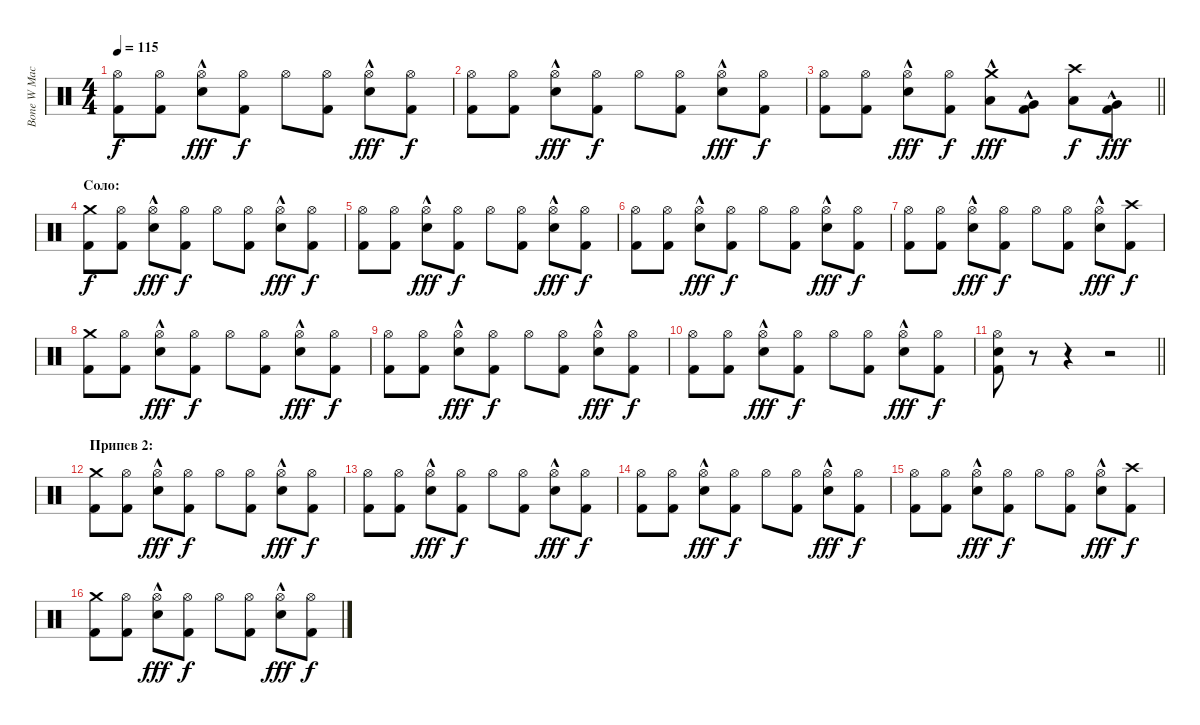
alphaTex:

\track ("Bone W Machine" "Bone W Mac") {instrument percussion}
\staff {score}
\articulation defaults
\ts (4 4)
\tempo 115
\clef neutral
\ks c
("Hi-Hat (open)" "Kick (hit) 2").8{dy f} ("Hi-Hat (open)" "Kick (hit) 2").8 ("Hi-Hat (open)" "Electric Snare (hit)"{hac}).8{dy fff} ("Hi-Hat (open)" "Kick (hit) 2").8{dy f} "Hi-Hat (open)".8 ("Hi-Hat (open)" "Kick (hit) 2").8 ("Hi-Hat (open)" "Electric Snare (hit)"{hac}).8{dy fff} ("Hi-Hat (open)" "Kick (hit) 2").8{dy f} |
("Hi-Hat (open)" "Kick (hit) 2").8 ("Hi-Hat (open)" "Kick (hit) 2").8 ("Hi-Hat (open)" "Electric Snare (hit)"{hac}).8{dy fff} ("Hi-Hat (open)" "Kick (hit) 2").8{dy f} "Hi-Hat (open)".8 ("Hi-Hat (open)" "Kick (hit) 2").8 ("Hi-Hat (open)" "Electric Snare (hit)"{hac}).8{dy fff} ("Hi-Hat (open)" "Kick (hit) 2").8{dy f} |
\barLineRight lightlight
("Hi-Hat (open)" "Kick (hit) 2").8 ("Hi-Hat (open)" "Kick (hit) 2").8 ("Hi-Hat (open)" "Electric Snare (hit)"{hac}).8{dy fff} ("Hi-Hat (open)" "Kick (hit) 2").8{dy f} ("Crash medium (hit)" "Low Floor Tom (hit)"{hac}).8{dy fff} ("Very Low Tom (hit)"{hac} "Kick (hit) 2").8 ("Crash high (hit)" "Low Tom (hit)").8{dy f} ("Very Low Tom (hit)"{hac} "Kick (hit) 2").8{dy fff} |
\section ("" "Соло:")
("Crash medium (hit)" "Kick (hit) 2").8{dy f} ("Hi-Hat (open)" "Kick (hit) 2").8 ("Hi-Hat (open)" "Electric Snare (hit)"{hac}).8{dy fff} ("Hi-Hat (open)" "Kick (hit) 2").8{dy f} "Hi-Hat (open)".8 ("Hi-Hat (open)" "Kick (hit) 2").8 ("Hi-Hat (open)" "Electric Snare (hit)"{hac}).8{dy fff} ("Hi-Hat (open)" "Kick (hit) 2").8{dy f} |
("Hi-Hat (open)" "Kick (hit) 2").8 ("Hi-Hat (open)" "Kick (hit) 2").8 ("Hi-Hat (open)" "Electric Snare (hit)"{hac}).8{dy fff} ("Hi-Hat (open)" "Kick (hit) 2").8{dy f} "Hi-Hat (open)".8 ("Hi-Hat (open)" "Kick (hit) 2").8 ("Hi-Hat (open)" "Electric Snare (hit)"{hac}).8{dy fff} ("Hi-Hat (open)" "Kick (hit) 2").8{dy f} |
("Hi-Hat (open)" "Kick (hit) 2").8 ("Hi-Hat (open)" "Kick (hit) 2").8 ("Hi-Hat (open)" "Electric Snare (hit)"{hac}).8{dy fff} ("Hi-Hat (open)" "Kick (hit) 2").8{dy f} "Hi-Hat (open)".8 ("Hi-Hat (open)" "Kick (hit) 2").8 ("Hi-Hat (open)" "Electric Snare (hit)"{hac}).8{dy fff} ("Hi-Hat (open)" "Kick (hit) 2").8{dy f} |
("Hi-Hat (open)" "Kick (hit) 2").8 ("Hi-Hat (open)" "Kick (hit) 2").8 ("Hi-Hat (open)" "Electric Snare (hit)"{hac}).8{dy fff} ("Hi-Hat (open)" "Kick (hit) 2").8{dy f} "Hi-Hat (open)".8 ("Hi-Hat (open)" "Kick (hit) 2").8 ("Hi-Hat (open)" "Electric Snare (hit)"{hac}).8{dy fff} ("Crash high (hit)" "Kick (hit) 2").8{dy f} |
("Crash medium (hit)" "Kick (hit) 2").8 ("Hi-Hat (open)" "Kick (hit) 2").8 ("Hi-Hat (open)" "Electric Snare (hit)"{hac}).8{dy fff} ("Hi-Hat (open)" "Kick (hit) 2").8{dy f} "Hi-Hat (open)".8 ("Hi-Hat (open)" "Kick (hit) 2").8 ("Hi-Hat (open)" "Electric Snare (hit)"{hac}).8{dy fff} ("Hi-Hat (open)" "Kick (hit) 2").8{dy f} |
("Hi-Hat (open)" "Kick (hit) 2").8 ("Hi-Hat (open)" "Kick (hit) 2").8 ("Hi-Hat (open)" "Electric Snare (hit)"{hac}).8{dy fff} ("Hi-Hat (open)" "Kick (hit) 2").8{dy f} "Hi-Hat (open)".8 ("Hi-Hat (open)" "Kick (hit) 2").8 ("Hi-Hat (open)" "Electric Snare (hit)"{hac}).8{dy fff} ("Hi-Hat (open)" "Kick (hit) 2").8{dy f} |
("Hi-Hat (open)" "Kick (hit) 2").8 ("Hi-Hat (open)" "Kick (hit) 2").8 ("Hi-Hat (open)" "Electric Snare (hit)"{hac}).8{dy fff} ("Hi-Hat (open)" "Kick (hit) 2").8{dy f} "Hi-Hat (open)".8 ("Hi-Hat (open)" "Kick (hit) 2").8 ("Hi-Hat (open)" "Electric Snare (hit)"{hac}).8{dy fff} ("Hi-Hat (open)" "Kick (hit) 2").8{dy f} |
\barLineRight lightlight
("Hi-Hat (open)" "Electric Snare (hit)" "Kick (hit) 2").8 r.8 r.4 r.2 |
\section ("" "Припев 2:")
("Crash medium (hit)" "Kick (hit) 2").8 ("Hi-Hat (open)" "Kick (hit) 2").8 ("Hi-Hat (open)" "Electric Snare (hit)"{hac}).8{dy fff} ("Hi-Hat (open)" "Kick (hit) 2").8{dy f} "Hi-Hat (open)".8 ("Hi-Hat (open)" "Kick (hit) 2").8 ("Hi-Hat (open)" "Electric Snare (hit)"{hac}).8{dy fff} ("Hi-Hat (open)" "Kick (hit) 2").8{dy f} |
("Hi-Hat (open)" "Kick (hit) 2").8 ("Hi-Hat (open)" "Kick (hit) 2").8 ("Hi-Hat (open)" "Electric Snare (hit)"{hac}).8{dy fff} ("Hi-Hat (open)" "Kick (hit) 2").8{dy f} "Hi-Hat (open)".8 ("Hi-Hat (open)" "Kick (hit) 2").8 ("Hi-Hat (open)" "Electric Snare (hit)"{hac}).8{dy fff} ("Hi-Hat (open)" "Kick (hit) 2").8{dy f} |
("Hi-Hat (open)" "Kick (hit) 2").8 ("Hi-Hat (open)" "Kick (hit) 2").8 ("Hi-Hat (open)" "Electric Snare (hit)"{hac}).8{dy fff} ("Hi-Hat (open)" "Kick (hit) 2").8{dy f} "Hi-Hat (open)".8 ("Hi-Hat (open)" "Kick (hit) 2").8 ("Hi-Hat (open)" "Electric Snare (hit)"{hac}).8{dy fff} ("Hi-Hat (open)" "Kick (hit) 2").8{dy f} |
("Hi-Hat (open)" "Kick (hit) 2").8 ("Hi-Hat (open)" "Kick (hit) 2").8 ("Hi-Hat (open)" "Electric Snare (hit)"{hac}).8{dy fff} ("Hi-Hat (open)" "Kick (hit) 2").8{dy f} "Hi-Hat (open)".8 ("Hi-Hat (open)" "Kick (hit) 2").8 ("Hi-Hat (open)" "Electric Snare (hit)"{hac}).8{dy fff} ("Crash high (hit)" "Kick (hit) 2").8{dy f} |
("Crash medium (hit)" "Kick (hit) 2").8 ("Hi-Hat (open)" "Kick (hit) 2").8 ("Hi-Hat (open)" "Electric Snare (hit)"{hac}).8{dy fff} ("Hi-Hat (open)" "Kick (hit) 2").8{dy f} "Hi-Hat (open)".8 ("Hi-Hat (open)" "Kick (hit) 2").8 ("Hi-Hat (open)" "Electric Snare (hit)"{hac}).8{dy fff} ("Hi-Hat (open)" "Kick (hit) 2").8{dy f}
